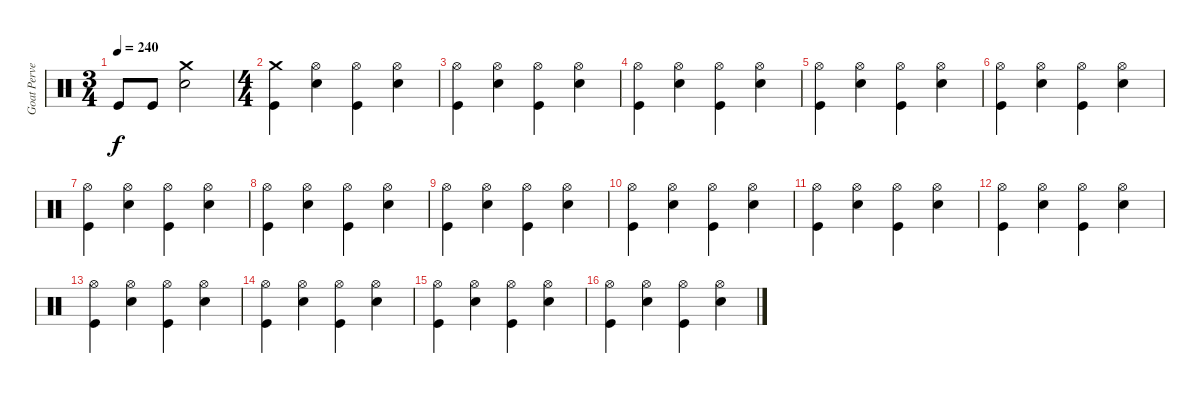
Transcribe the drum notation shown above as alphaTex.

\track ("Goat Pervertor" "Goat Perve") {instrument percussion}
\staff {score}
\articulation defaults
\ts (3 4)
\tempo 240
\clef neutral
\ks c "Kick (hit)".8{dy f} "Kick (hit)".8
("Snare (hit) 2" "Crash medium (hit)").2 |
\ts (4 4)
("Kick (hit)" "Crash medium (hit)").4 ("Snare (hit) 2" "Hi-Hat (open)").4 ("Kick (hit)" "Hi-Hat (open)").4 ("Snare (hit) 2" "Hi-Hat (open)").4 |
("Kick (hit)" "Hi-Hat (open)").4 ("Snare (hit) 2" "Hi-Hat (open)").4 ("Kick (hit)" "Hi-Hat (open)").4 ("Snare (hit) 2" "Hi-Hat (open)").4 |
("Kick (hit)" "Hi-Hat (open)").4 ("Snare (hit) 2" "Hi-Hat (open)").4 ("Kick (hit)" "Hi-Hat (open)").4 ("Snare (hit) 2" "Hi-Hat (open)").4 |
("Kick (hit)" "Hi-Hat (open)").4 ("Snare (hit) 2" "Hi-Hat (open)").4 ("Kick (hit)" "Hi-Hat (open)").4 ("Snare (hit) 2" "Hi-Hat (open)").4 |
("Kick (hit)" "Hi-Hat (open)").4 ("Snare (hit) 2" "Hi-Hat (open)").4 ("Kick (hit)" "Hi-Hat (open)").4 ("Snare (hit) 2" "Hi-Hat (open)").4 |
("Kick (hit)" "Hi-Hat (open)").4 ("Snare (hit) 2" "Hi-Hat (open)").4 ("Kick (hit)" "Hi-Hat (open)").4 ("Snare (hit) 2" "Hi-Hat (open)").4 |
("Kick (hit)" "Hi-Hat (open)").4 ("Snare (hit) 2" "Hi-Hat (open)").4 ("Kick (hit)" "Hi-Hat (open)").4 ("Snare (hit) 2" "Hi-Hat (open)").4 |
("Kick (hit)" "Hi-Hat (open)").4 ("Snare (hit) 2" "Hi-Hat (open)").4 ("Kick (hit)" "Hi-Hat (open)").4 ("Snare (hit) 2" "Hi-Hat (open)").4 |
("Kick (hit)" "Hi-Hat (open)").4 ("Snare (hit) 2" "Hi-Hat (open)").4 ("Kick (hit)" "Hi-Hat (open)").4 ("Snare (hit) 2" "Hi-Hat (open)").4 |
("Kick (hit)" "Hi-Hat (open)").4 ("Snare (hit) 2" "Hi-Hat (open)").4 ("Kick (hit)" "Hi-Hat (open)").4 ("Snare (hit) 2" "Hi-Hat (open)").4 |
("Kick (hit)" "Hi-Hat (open)").4 ("Snare (hit) 2" "Hi-Hat (open)").4 ("Kick (hit)" "Hi-Hat (open)").4 ("Snare (hit) 2" "Hi-Hat (open)").4 |
("Kick (hit)" "Hi-Hat (open)").4 ("Snare (hit) 2" "Hi-Hat (open)").4 ("Kick (hit)" "Hi-Hat (open)").4 ("Snare (hit) 2" "Hi-Hat (open)").4 |
("Kick (hit)" "Hi-Hat (open)").4 ("Snare (hit) 2" "Hi-Hat (open)").4 ("Kick (hit)" "Hi-Hat (open)").4 ("Snare (hit) 2" "Hi-Hat (open)").4 |
("Kick (hit)" "Hi-Hat (open)").4 ("Snare (hit) 2" "Hi-Hat (open)").4 ("Kick (hit)" "Hi-Hat (open)").4 ("Snare (hit) 2" "Hi-Hat (open)").4 |
("Kick (hit)" "Hi-Hat (open)").4 ("Snare (hit) 2" "Hi-Hat (open)").4 ("Kick (hit)" "Hi-Hat (open)").4 ("Snare (hit) 2" "Hi-Hat (open)").4
